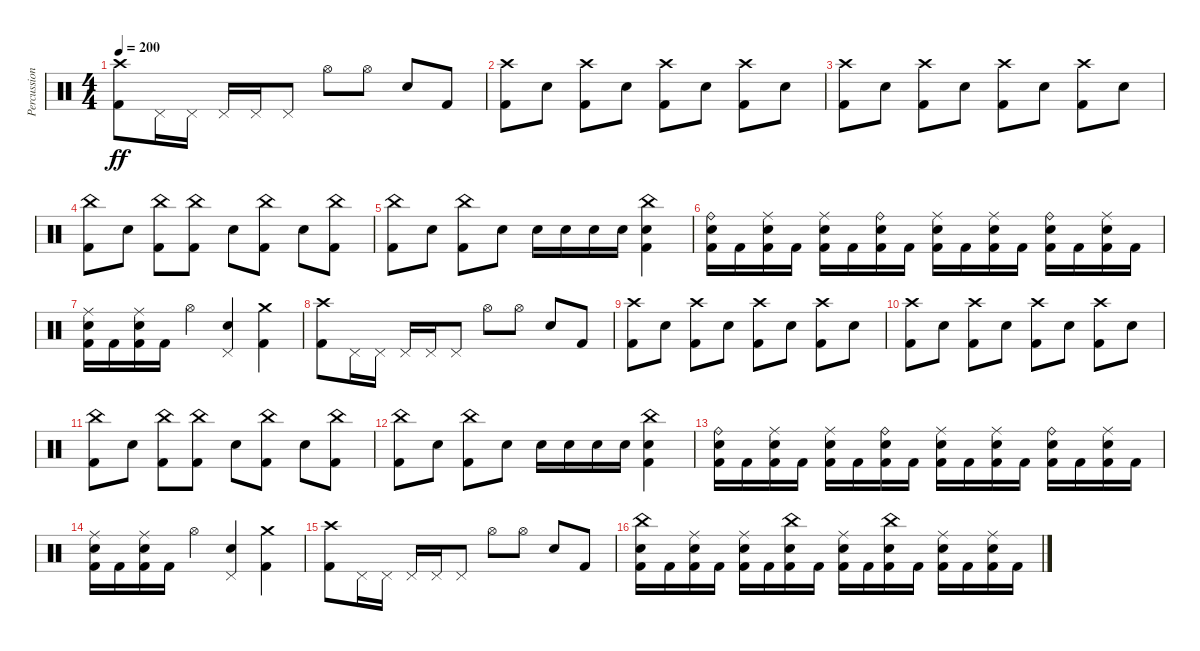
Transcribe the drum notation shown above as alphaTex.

\track ("Percussion" "Percussion") {instrument percussion}
\staff {score}
\articulation defaults
\ts (4 4)
\tempo 200
\clef neutral
\ks c
("Crash high (hit)" "Kick (hit) 2").8{dy ff} "Pedal Hi-Hat (hit)".16 "Pedal Hi-Hat (hit)".16 "Pedal Hi-Hat (hit)".16 "Pedal Hi-Hat (hit)".16 "Pedal Hi-Hat (hit)".8 "Hi-Hat (open)".8 "Hi-Hat (open)".8 "Electric Snare (hit)".8 "Kick (hit) 2".8 |
("Crash high (hit)" "Kick (hit) 2").8 "Electric Snare (hit)".8 ("Crash high (hit)" "Kick (hit) 2").8 "Electric Snare (hit)".8 ("Crash high (hit)" "Kick (hit) 2").8 "Electric Snare (hit)".8 ("Crash high (hit)" "Kick (hit) 2").8 "Electric Snare (hit)".8 |
("Crash high (hit)" "Kick (hit) 2").8 "Electric Snare (hit)".8 ("Crash high (hit)" "Kick (hit) 2").8 "Electric Snare (hit)".8 ("Crash high (hit)" "Kick (hit) 2").8 "Electric Snare (hit)".8 ("Crash high (hit)" "Kick (hit) 2").8 "Electric Snare (hit)".8 |
("China (hit)" "Kick (hit) 2").8 "Electric Snare (hit)".8 ("China (hit)" "Kick (hit) 2").8 ("China (hit)" "Kick (hit) 2").8 "Electric Snare (hit)".8 ("China (hit)" "Kick (hit) 2").8 "Electric Snare (hit)".8 ("China (hit)" "Kick (hit) 2").8 |
("China (hit)" "Kick (hit) 2").8 "Electric Snare (hit)".8 ("China (hit)" "Kick (hit) 2").8 "Electric Snare (hit)".8 "Electric Snare (hit)".16 "Electric Snare (hit)".16 "Electric Snare (hit)".16 "Electric Snare (hit)".16 ("China (hit)" "Electric Snare (hit)" "Kick (hit) 2").4 |
("Ride (bell)" "Electric Snare (hit)" "Kick (hit) 2").16 "Kick (hit) 2".16 ("Ride (middle)" "Electric Snare (hit)" "Kick (hit) 2").16 "Kick (hit) 2".16 ("Ride (middle)" "Electric Snare (hit)" "Kick (hit) 2").16 "Kick (hit) 2".16 ("Ride (bell)" "Electric Snare (hit)" "Kick (hit) 2").16 "Kick (hit) 2".16 ("Ride (middle)" "Electric Snare (hit)" "Kick (hit) 2").16 "Kick (hit) 2".16 ("Ride (middle)" "Electric Snare (hit)" "Kick (hit) 2").16 "Kick (hit) 2".16 ("Ride (bell)" "Electric Snare (hit)" "Kick (hit) 2").16 "Kick (hit) 2".16 ("Ride (middle)" "Electric Snare (hit)" "Kick (hit) 2").16 "Kick (hit) 2".16 |
("Ride (middle)" "Electric Snare (hit)" "Kick (hit) 2").16 "Kick (hit) 2".16 ("Ride (middle)" "Electric Snare (hit)" "Kick (hit) 2").16 "Kick (hit) 2".16 "Hi-Hat (open)".4 ("Pedal Hi-Hat (hit)" "Electric Snare (hit)").4 ("Crash medium (hit)" "Kick (hit) 2").4 |
("Crash high (hit)" "Kick (hit) 2").8 "Pedal Hi-Hat (hit)".16 "Pedal Hi-Hat (hit)".16 "Pedal Hi-Hat (hit)".16 "Pedal Hi-Hat (hit)".16 "Pedal Hi-Hat (hit)".8 "Hi-Hat (open)".8 "Hi-Hat (open)".8 "Electric Snare (hit)".8 "Kick (hit) 2".8 |
("Crash high (hit)" "Kick (hit) 2").8 "Electric Snare (hit)".8 ("Crash high (hit)" "Kick (hit) 2").8 "Electric Snare (hit)".8 ("Crash high (hit)" "Kick (hit) 2").8 "Electric Snare (hit)".8 ("Crash high (hit)" "Kick (hit) 2").8 "Electric Snare (hit)".8 |
("Crash high (hit)" "Kick (hit) 2").8 "Electric Snare (hit)".8 ("Crash high (hit)" "Kick (hit) 2").8 "Electric Snare (hit)".8 ("Crash high (hit)" "Kick (hit) 2").8 "Electric Snare (hit)".8 ("Crash high (hit)" "Kick (hit) 2").8 "Electric Snare (hit)".8 |
("China (hit)" "Kick (hit) 2").8 "Electric Snare (hit)".8 ("China (hit)" "Kick (hit) 2").8 ("China (hit)" "Kick (hit) 2").8 "Electric Snare (hit)".8 ("China (hit)" "Kick (hit) 2").8 "Electric Snare (hit)".8 ("China (hit)" "Kick (hit) 2").8 |
("China (hit)" "Kick (hit) 2").8 "Electric Snare (hit)".8 ("China (hit)" "Kick (hit) 2").8 "Electric Snare (hit)".8 "Electric Snare (hit)".16 "Electric Snare (hit)".16 "Electric Snare (hit)".16 "Electric Snare (hit)".16 ("China (hit)" "Electric Snare (hit)" "Kick (hit) 2").4 |
("Ride (bell)" "Electric Snare (hit)" "Kick (hit) 2").16 "Kick (hit) 2".16 ("Ride (middle)" "Electric Snare (hit)" "Kick (hit) 2").16 "Kick (hit) 2".16 ("Ride (middle)" "Electric Snare (hit)" "Kick (hit) 2").16 "Kick (hit) 2".16 ("Ride (bell)" "Electric Snare (hit)" "Kick (hit) 2").16 "Kick (hit) 2".16 ("Ride (middle)" "Electric Snare (hit)" "Kick (hit) 2").16 "Kick (hit) 2".16 ("Ride (middle)" "Electric Snare (hit)" "Kick (hit) 2").16 "Kick (hit) 2".16 ("Ride (bell)" "Electric Snare (hit)" "Kick (hit) 2").16 "Kick (hit) 2".16 ("Ride (middle)" "Electric Snare (hit)" "Kick (hit) 2").16 "Kick (hit) 2".16 |
("Ride (middle)" "Electric Snare (hit)" "Kick (hit) 2").16 "Kick (hit) 2".16 ("Ride (middle)" "Electric Snare (hit)" "Kick (hit) 2").16 "Kick (hit) 2".16 "Hi-Hat (open)".4 ("Pedal Hi-Hat (hit)" "Electric Snare (hit)").4 ("Crash medium (hit)" "Kick (hit) 2").4 |
("Crash high (hit)" "Kick (hit) 2").8 "Pedal Hi-Hat (hit)".16 "Pedal Hi-Hat (hit)".16 "Pedal Hi-Hat (hit)".16 "Pedal Hi-Hat (hit)".16 "Pedal Hi-Hat (hit)".8 "Hi-Hat (open)".8 "Hi-Hat (open)".8 "Electric Snare (hit)".8 "Kick (hit) 2".8 |
("China (hit)" "Electric Snare (hit)" "Kick (hit) 2").16 "Kick (hit) 2".16 ("Ride (middle)" "Electric Snare (hit)" "Kick (hit) 2").16 "Kick (hit) 2".16 ("Ride (middle)" "Electric Snare (hit)" "Kick (hit) 2").16 "Kick (hit) 2".16 ("China (hit)" "Electric Snare (hit)" "Kick (hit) 2").16 "Kick (hit) 2".16 ("Ride (middle)" "Electric Snare (hit)" "Kick (hit) 2").16 "Kick (hit) 2".16 ("China (hit)" "Electric Snare (hit)" "Kick (hit) 2").16 "Kick (hit) 2".16 ("Ride (middle)" "Electric Snare (hit)" "Kick (hit) 2").16 "Kick (hit) 2".16 ("Ride (middle)" "Electric Snare (hit)" "Kick (hit) 2").16 "Kick (hit) 2".16
